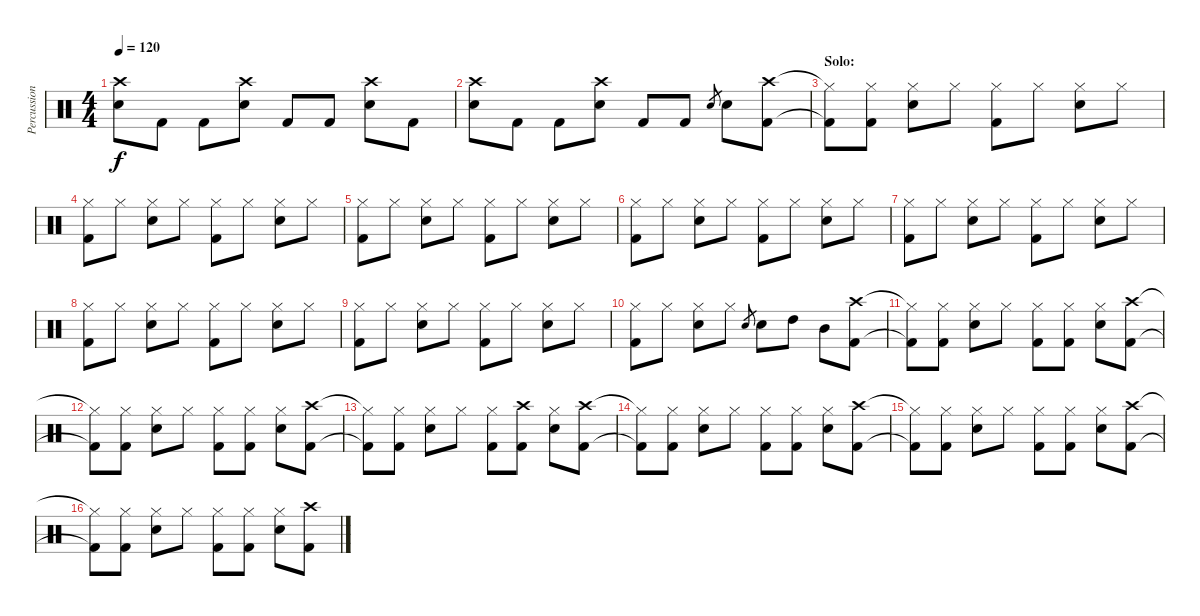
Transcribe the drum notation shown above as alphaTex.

\track ("Percussion" "Percussion") {instrument percussion}
\staff {score}
\articulation defaults
\ts (4 4)
\tempo 120
\clef neutral
\ks c
("Crash high (hit)" "Snare (hit) 2").8{dy f} "Kick (hit) 2".8 "Kick (hit) 2".8 ("Crash high (hit)" "Snare (hit) 2").8 "Kick (hit) 2".8 "Kick (hit) 2".8 ("Crash high (hit)" "Snare (hit) 2").8 "Kick (hit) 2".8 |
("Crash high (hit)" "Snare (hit) 2").8 "Kick (hit) 2".8 "Kick (hit) 2".8 ("Crash high (hit)" "Snare (hit) 2").8 "Kick (hit) 2".8 "Kick (hit) 2".8 "Snare (hit) 2".8{gr} "Snare (hit) 2".8 ("Crash high (hit)" "Kick (hit) 2").8 |
\section ("" "Solo:")
("Hi-Hat (closed)"{t} "Kick (hit) 2"{t}).8 ("Hi-Hat (closed)" "Kick (hit) 2").8 ("Hi-Hat (closed)" "Snare (hit) 2").8 "Hi-Hat (closed)".8 ("Hi-Hat (closed)" "Kick (hit) 2").8 "Hi-Hat (closed)".8 ("Hi-Hat (closed)" "Snare (hit) 2").8 "Hi-Hat (closed)".8 |
("Hi-Hat (closed)" "Kick (hit) 2").8 "Hi-Hat (closed)".8 ("Hi-Hat (closed)" "Snare (hit) 2").8 "Hi-Hat (closed)".8 ("Hi-Hat (closed)" "Kick (hit) 2").8 "Hi-Hat (closed)".8 ("Hi-Hat (closed)" "Snare (hit) 2").8 "Hi-Hat (closed)".8 |
("Hi-Hat (closed)" "Kick (hit) 2").8 "Hi-Hat (closed)".8 ("Hi-Hat (closed)" "Snare (hit) 2").8 "Hi-Hat (closed)".8 ("Hi-Hat (closed)" "Kick (hit) 2").8 "Hi-Hat (closed)".8 ("Hi-Hat (closed)" "Snare (hit) 2").8 "Hi-Hat (closed)".8 |
("Hi-Hat (closed)" "Kick (hit) 2").8 "Hi-Hat (closed)".8 ("Hi-Hat (closed)" "Snare (hit) 2").8 "Hi-Hat (closed)".8 ("Hi-Hat (closed)" "Kick (hit) 2").8 "Hi-Hat (closed)".8 ("Hi-Hat (closed)" "Snare (hit) 2").8 "Hi-Hat (closed)".8 |
("Hi-Hat (closed)" "Kick (hit) 2").8 "Hi-Hat (closed)".8 ("Hi-Hat (closed)" "Snare (hit) 2").8 "Hi-Hat (closed)".8 ("Hi-Hat (closed)" "Kick (hit) 2").8 "Hi-Hat (closed)".8 ("Hi-Hat (closed)" "Snare (hit) 2").8 "Hi-Hat (closed)".8 |
("Hi-Hat (closed)" "Kick (hit) 2").8 "Hi-Hat (closed)".8 ("Hi-Hat (closed)" "Snare (hit) 2").8 "Hi-Hat (closed)".8 ("Hi-Hat (closed)" "Kick (hit) 2").8 "Hi-Hat (closed)".8 ("Hi-Hat (closed)" "Snare (hit) 2").8 "Hi-Hat (closed)".8 |
("Hi-Hat (closed)" "Kick (hit) 2").8 "Hi-Hat (closed)".8 ("Hi-Hat (closed)" "Snare (hit) 2").8 "Hi-Hat (closed)".8 ("Hi-Hat (closed)" "Kick (hit) 2").8 "Hi-Hat (closed)".8 ("Hi-Hat (closed)" "Snare (hit) 2").8 "Hi-Hat (closed)".8 |
("Hi-Hat (closed)" "Kick (hit) 2").8 "Hi-Hat (closed)".8 ("Hi-Hat (closed)" "Snare (hit) 2").8 "Hi-Hat (closed)".8 "Snare (hit) 2".8{gr} "Snare (hit) 2".8 "High Tom (hit)".8 "Mid Tom (hit)".8 ("Crash high (hit)" "Kick (hit) 2").8 |
("Hi-Hat (closed)"{t} "Kick (hit) 2"{t}).8 ("Hi-Hat (closed)" "Kick (hit) 2").8 ("Hi-Hat (closed)" "Snare (hit) 2").8 "Hi-Hat (closed)".8 ("Hi-Hat (closed)" "Kick (hit) 2").8 ("Hi-Hat (closed)" "Kick (hit) 2").8 ("Hi-Hat (closed)" "Snare (hit) 2").8 ("Crash high (hit)" "Kick (hit) 2").8 |
("Hi-Hat (closed)"{t} "Kick (hit) 2"{t}).8 ("Hi-Hat (closed)" "Kick (hit) 2").8 ("Hi-Hat (closed)" "Snare (hit) 2").8 "Hi-Hat (closed)".8 ("Hi-Hat (closed)" "Kick (hit) 2").8 ("Hi-Hat (closed)" "Kick (hit) 2").8 ("Hi-Hat (closed)" "Snare (hit) 2").8 ("Crash high (hit)" "Kick (hit) 2").8 |
("Hi-Hat (closed)"{t} "Kick (hit) 2"{t}).8 ("Hi-Hat (closed)" "Kick (hit) 2").8 ("Hi-Hat (closed)" "Snare (hit) 2").8 "Hi-Hat (closed)".8 ("Hi-Hat (closed)" "Kick (hit) 2").8 ("Crash high (hit)" "Kick (hit) 2").8 ("Hi-Hat (closed)" "Snare (hit) 2").8 ("Crash high (hit)" "Kick (hit) 2").8 |
("Hi-Hat (closed)"{t} "Kick (hit) 2"{t}).8 ("Hi-Hat (closed)" "Kick (hit) 2").8 ("Hi-Hat (closed)" "Snare (hit) 2").8 "Hi-Hat (closed)".8 ("Hi-Hat (closed)" "Kick (hit) 2").8 ("Hi-Hat (closed)" "Kick (hit) 2").8 ("Hi-Hat (closed)" "Snare (hit) 2").8 ("Crash high (hit)" "Kick (hit) 2").8 |
("Hi-Hat (closed)"{t} "Kick (hit) 2"{t}).8 ("Hi-Hat (closed)" "Kick (hit) 2").8 ("Hi-Hat (closed)" "Snare (hit) 2").8 "Hi-Hat (closed)".8 ("Hi-Hat (closed)" "Kick (hit) 2").8 ("Hi-Hat (closed)" "Kick (hit) 2").8 ("Hi-Hat (closed)" "Snare (hit) 2").8 ("Crash high (hit)" "Kick (hit) 2").8 |
("Hi-Hat (closed)"{t} "Kick (hit) 2"{t}).8 ("Hi-Hat (closed)" "Kick (hit) 2").8 ("Hi-Hat (closed)" "Snare (hit) 2").8 "Hi-Hat (closed)".8 ("Hi-Hat (closed)" "Kick (hit) 2").8 ("Hi-Hat (closed)" "Kick (hit) 2").8 ("Hi-Hat (closed)" "Snare (hit) 2").8 ("Crash high (hit)" "Kick (hit) 2").8
